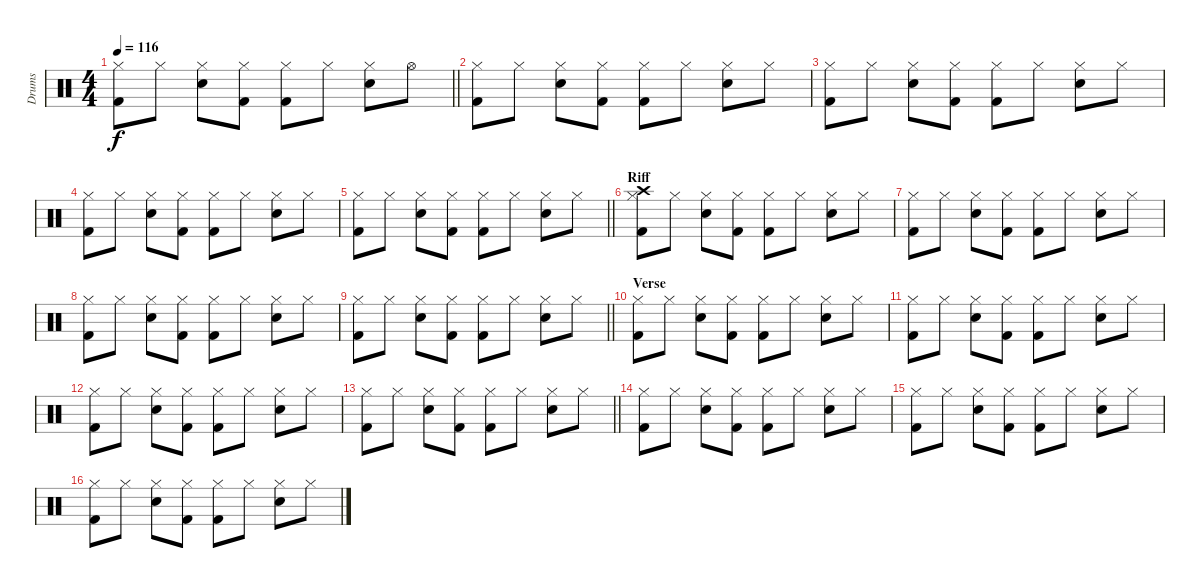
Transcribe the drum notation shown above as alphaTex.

\track ("Drums" "Drums") {instrument percussion}
\staff {score}
\articulation defaults
\ts (4 4)
\tempo 116
\clef neutral
\barLineRight lightlight
\ks c
("Kick (hit) 2" "Hi-Hat (closed)").8{dy f} "Hi-Hat (closed)".8 ("Electric Snare (hit)" "Hi-Hat (closed)").8 ("Kick (hit) 2" "Hi-Hat (closed)").8 ("Kick (hit) 2" "Hi-Hat (closed)").8 "Hi-Hat (closed)".8 ("Electric Snare (hit)" "Hi-Hat (closed)").8 "Hi-Hat (open)".8 |
("Kick (hit) 2" "Hi-Hat (closed)").8 "Hi-Hat (closed)".8 ("Electric Snare (hit)" "Hi-Hat (closed)").8 ("Kick (hit) 2" "Hi-Hat (closed)").8 ("Kick (hit) 2" "Hi-Hat (closed)").8 "Hi-Hat (closed)".8 ("Electric Snare (hit)" "Hi-Hat (closed)").8 "Hi-Hat (closed)".8 |
("Kick (hit) 2" "Hi-Hat (closed)").8 "Hi-Hat (closed)".8 ("Electric Snare (hit)" "Hi-Hat (closed)").8 ("Kick (hit) 2" "Hi-Hat (closed)").8 ("Kick (hit) 2" "Hi-Hat (closed)").8 "Hi-Hat (closed)".8 ("Electric Snare (hit)" "Hi-Hat (closed)").8 "Hi-Hat (closed)".8 |
("Kick (hit) 2" "Hi-Hat (closed)").8 "Hi-Hat (closed)".8 ("Electric Snare (hit)" "Hi-Hat (closed)").8 ("Kick (hit) 2" "Hi-Hat (closed)").8 ("Kick (hit) 2" "Hi-Hat (closed)").8 "Hi-Hat (closed)".8 ("Electric Snare (hit)" "Hi-Hat (closed)").8 "Hi-Hat (closed)".8 |
\barLineRight lightlight
("Kick (hit) 2" "Hi-Hat (closed)").8 "Hi-Hat (closed)".8 ("Electric Snare (hit)" "Hi-Hat (closed)").8 ("Kick (hit) 2" "Hi-Hat (closed)").8 ("Kick (hit) 2" "Hi-Hat (closed)").8 "Hi-Hat (closed)".8 ("Electric Snare (hit)" "Hi-Hat (closed)").8 "Hi-Hat (closed)".8 |
\section ("" "Riff")
("Crash high (hit)" "Kick (hit) 2" "Hi-Hat (closed)").8 "Hi-Hat (closed)".8 ("Electric Snare (hit)" "Hi-Hat (closed)").8 ("Kick (hit) 2" "Hi-Hat (closed)").8 ("Kick (hit) 2" "Hi-Hat (closed)").8 "Hi-Hat (closed)".8 ("Electric Snare (hit)" "Hi-Hat (closed)").8 "Hi-Hat (closed)".8 |
("Kick (hit) 2" "Hi-Hat (closed)").8 "Hi-Hat (closed)".8 ("Electric Snare (hit)" "Hi-Hat (closed)").8 ("Kick (hit) 2" "Hi-Hat (closed)").8 ("Kick (hit) 2" "Hi-Hat (closed)").8 "Hi-Hat (closed)".8 ("Electric Snare (hit)" "Hi-Hat (closed)").8 "Hi-Hat (closed)".8 |
("Kick (hit) 2" "Hi-Hat (closed)").8 "Hi-Hat (closed)".8 ("Electric Snare (hit)" "Hi-Hat (closed)").8 ("Kick (hit) 2" "Hi-Hat (closed)").8 ("Kick (hit) 2" "Hi-Hat (closed)").8 "Hi-Hat (closed)".8 ("Electric Snare (hit)" "Hi-Hat (closed)").8 "Hi-Hat (closed)".8 |
\barLineRight lightlight
("Kick (hit) 2" "Hi-Hat (closed)").8 "Hi-Hat (closed)".8 ("Electric Snare (hit)" "Hi-Hat (closed)").8 ("Kick (hit) 2" "Hi-Hat (closed)").8 ("Kick (hit) 2" "Hi-Hat (closed)").8 "Hi-Hat (closed)".8 ("Electric Snare (hit)" "Hi-Hat (closed)").8 "Hi-Hat (closed)".8 |
\section ("" "Verse")
("Kick (hit) 2" "Hi-Hat (closed)").8 "Hi-Hat (closed)".8 ("Electric Snare (hit)" "Hi-Hat (closed)").8 ("Kick (hit) 2" "Hi-Hat (closed)").8 ("Kick (hit) 2" "Hi-Hat (closed)").8 "Hi-Hat (closed)".8 ("Electric Snare (hit)" "Hi-Hat (closed)").8 "Hi-Hat (closed)".8 |
("Kick (hit) 2" "Hi-Hat (closed)").8 "Hi-Hat (closed)".8 ("Electric Snare (hit)" "Hi-Hat (closed)").8 ("Kick (hit) 2" "Hi-Hat (closed)").8 ("Kick (hit) 2" "Hi-Hat (closed)").8 "Hi-Hat (closed)".8 ("Electric Snare (hit)" "Hi-Hat (closed)").8 "Hi-Hat (closed)".8 |
("Kick (hit) 2" "Hi-Hat (closed)").8 "Hi-Hat (closed)".8 ("Electric Snare (hit)" "Hi-Hat (closed)").8 ("Kick (hit) 2" "Hi-Hat (closed)").8 ("Kick (hit) 2" "Hi-Hat (closed)").8 "Hi-Hat (closed)".8 ("Electric Snare (hit)" "Hi-Hat (closed)").8 "Hi-Hat (closed)".8 |
\barLineRight lightlight
("Kick (hit) 2" "Hi-Hat (closed)").8 "Hi-Hat (closed)".8 ("Electric Snare (hit)" "Hi-Hat (closed)").8 ("Kick (hit) 2" "Hi-Hat (closed)").8 ("Kick (hit) 2" "Hi-Hat (closed)").8 "Hi-Hat (closed)".8 ("Electric Snare (hit)" "Hi-Hat (closed)").8 "Hi-Hat (closed)".8 |
("Kick (hit) 2" "Hi-Hat (closed)").8 "Hi-Hat (closed)".8 ("Electric Snare (hit)" "Hi-Hat (closed)").8 ("Kick (hit) 2" "Hi-Hat (closed)").8 ("Kick (hit) 2" "Hi-Hat (closed)").8 "Hi-Hat (closed)".8 ("Electric Snare (hit)" "Hi-Hat (closed)").8 "Hi-Hat (closed)".8 |
("Kick (hit) 2" "Hi-Hat (closed)").8 "Hi-Hat (closed)".8 ("Electric Snare (hit)" "Hi-Hat (closed)").8 ("Kick (hit) 2" "Hi-Hat (closed)").8 ("Kick (hit) 2" "Hi-Hat (closed)").8 "Hi-Hat (closed)".8 ("Electric Snare (hit)" "Hi-Hat (closed)").8 "Hi-Hat (closed)".8 |
("Kick (hit) 2" "Hi-Hat (closed)").8 "Hi-Hat (closed)".8 ("Electric Snare (hit)" "Hi-Hat (closed)").8 ("Kick (hit) 2" "Hi-Hat (closed)").8 ("Kick (hit) 2" "Hi-Hat (closed)").8 "Hi-Hat (closed)".8 ("Electric Snare (hit)" "Hi-Hat (closed)").8 "Hi-Hat (closed)".8
